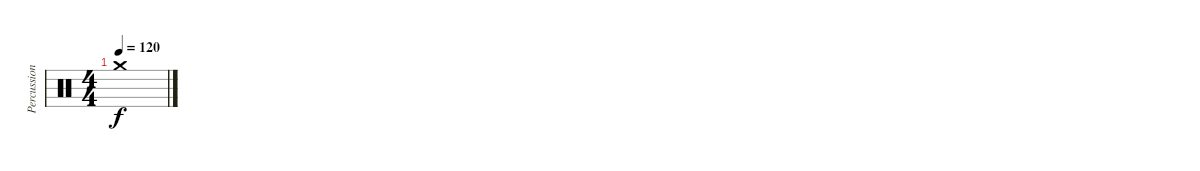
\track ("Percussions" "Percussion") {instrument percussion}
\staff {score}
\articulation defaults
\ts (4 4)
\tempo 120
\clef neutral
\ks c "Crash medium (hit)".1{dy f}
